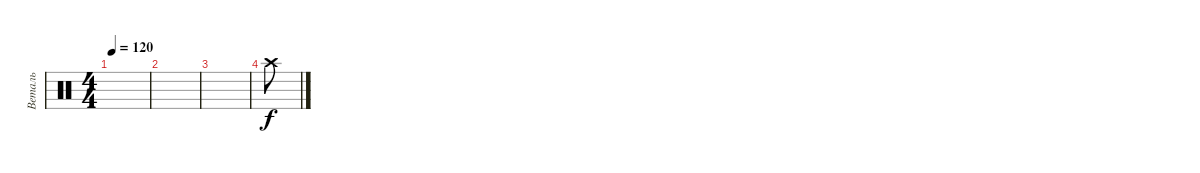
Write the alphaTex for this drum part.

\track ("Веталь" "Веталь") {instrument percussion}
\staff {score}
\articulation defaults
\ts (4 4)
\tempo 120
\clef neutral
\ks c
|
|
|
"Crash high (hit)".8
